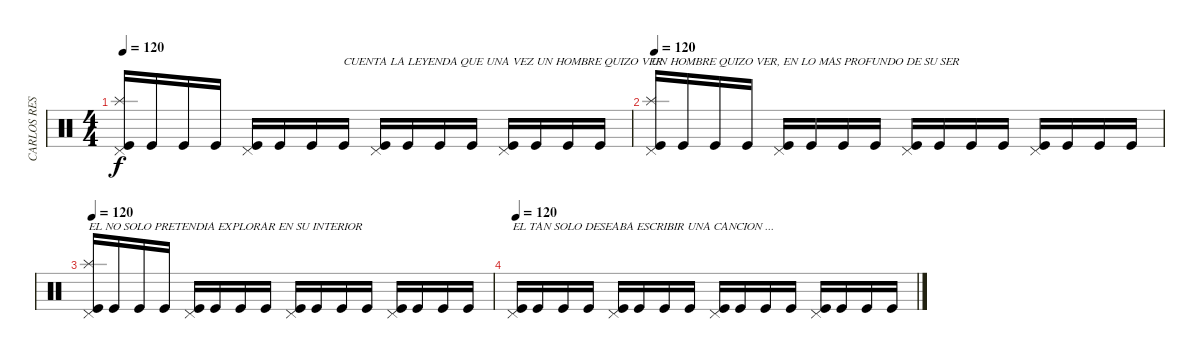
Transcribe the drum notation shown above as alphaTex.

\track ("CARLOS RESTREPO DARK  BATERIA" "CARLOS RES") {instrument percussion}
\staff {score}
\articulation defaults
\ts (4 4)
\tempo 120
\clef neutral
\ks c
("Kick (hit)" "Splash (hit)" "Pedal Hi-Hat (hit)").16{dy f} "Kick (hit)".16 "Kick (hit)".16 "Kick (hit)".16 ("Kick (hit)" "Pedal Hi-Hat (hit)").16 "Kick (hit)".16 "Kick (hit)".16 "Kick (hit)".16{txt "CUENTA LA LEYENDA QUE UNA VEZ UN HOMBRE QUIZO VER"} ("Kick (hit)" "Pedal Hi-Hat (hit)").16 "Kick (hit)".16 "Kick (hit)".16 "Kick (hit)".16 ("Kick (hit)" "Pedal Hi-Hat (hit)").16 "Kick (hit)".16 "Kick (hit)".16 "Kick (hit)".16 |
\tempo 120
("Kick (hit)" "Splash (hit)" "Pedal Hi-Hat (hit)").16{txt "UN HOMBRE QUIZO VER, EN LO MAS PROFUNDO DE SU SER"} "Kick (hit)".16 "Kick (hit)".16 "Kick (hit)".16 ("Kick (hit)" "Pedal Hi-Hat (hit)").16 "Kick (hit)".16 "Kick (hit)".16 "Kick (hit)".16 ("Kick (hit)" "Pedal Hi-Hat (hit)").16 "Kick (hit)".16 "Kick (hit)".16 "Kick (hit)".16 ("Kick (hit)" "Pedal Hi-Hat (hit)").16 "Kick (hit)".16 "Kick (hit)".16 "Kick (hit)".16 |
\tempo 120
("Kick (hit)" "Splash (hit)" "Pedal Hi-Hat (hit)").16{txt "EL NO SOLO PRETENDIA EXPLORAR EN SU INTERIOR"} "Kick (hit)".16 "Kick (hit)".16 "Kick (hit)".16 ("Kick (hit)" "Pedal Hi-Hat (hit)").16 "Kick (hit)".16 "Kick (hit)".16 "Kick (hit)".16 ("Kick (hit)" "Pedal Hi-Hat (hit)").16 "Kick (hit)".16 "Kick (hit)".16 "Kick (hit)".16 ("Kick (hit)" "Pedal Hi-Hat (hit)").16 "Kick (hit)".16 "Kick (hit)".16 "Kick (hit)".16 |
\tempo 120
("Kick (hit)" "Pedal Hi-Hat (hit)").16{txt "EL TAN SOLO DESEABA ESCRIBIR UNA CANCION ..."} "Kick (hit)".16 "Kick (hit)".16 "Kick (hit)".16 ("Kick (hit)" "Pedal Hi-Hat (hit)").16 "Kick (hit)".16 "Kick (hit)".16 "Kick (hit)".16 ("Kick (hit)" "Pedal Hi-Hat (hit)").16 "Kick (hit)".16 "Kick (hit)".16 "Kick (hit)".16 ("Kick (hit)" "Pedal Hi-Hat (hit)").16 "Kick (hit)".16 "Kick (hit)".16 "Kick (hit)".16
